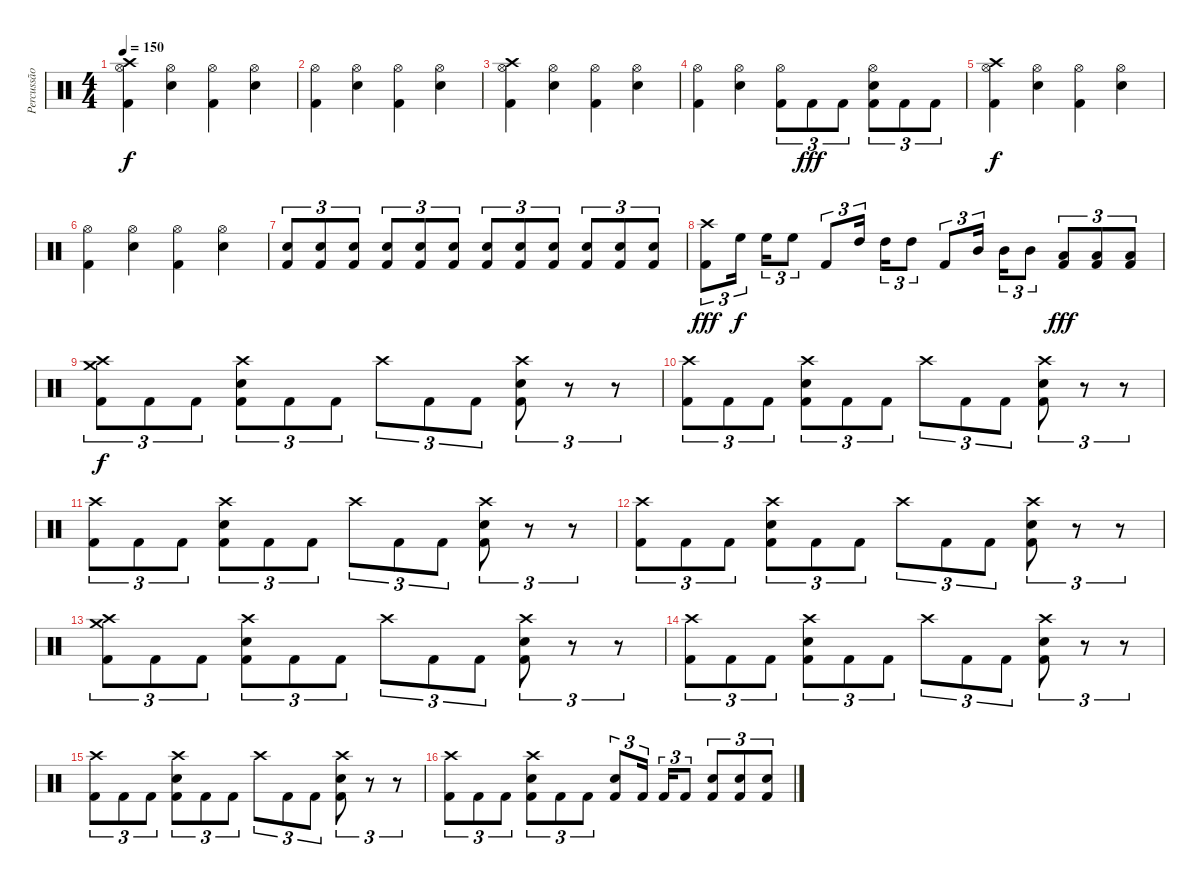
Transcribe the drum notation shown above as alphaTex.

\track ("Percussão" "Percussão") {instrument percussion}
\staff {score}
\articulation defaults
\ts (4 4)
\tempo 150
\clef neutral
\ks c
("Crash high (hit)" "Hi-Hat (open)" "Kick (hit) 2").4{dy f} ("Hi-Hat (open)" "Snare (hit) 2").4 ("Hi-Hat (open)" "Kick (hit) 2").4 ("Hi-Hat (open)" "Snare (hit) 2").4 |
("Hi-Hat (open)" "Kick (hit) 2").4 ("Hi-Hat (open)" "Snare (hit) 2").4 ("Hi-Hat (open)" "Kick (hit) 2").4 ("Hi-Hat (open)" "Snare (hit) 2").4 |
("Crash high (hit)" "Hi-Hat (open)" "Kick (hit) 2").4 ("Hi-Hat (open)" "Snare (hit) 2").4 ("Hi-Hat (open)" "Kick (hit) 2").4 ("Hi-Hat (open)" "Snare (hit) 2").4 |
("Hi-Hat (open)" "Kick (hit) 2").4 ("Hi-Hat (open)" "Snare (hit) 2").4 ("Hi-Hat (open)" "Kick (hit) 2").8{tu (3 2)} "Kick (hit) 2".8{tu (3 2) dy fff} "Kick (hit) 2".8{tu (3 2)} ("Hi-Hat (open)" "Snare (hit) 2" "Kick (hit) 2").8{tu (3 2)} "Kick (hit) 2".8{tu (3 2)} "Kick (hit) 2".8{tu (3 2)} |
("Crash high (hit)" "Hi-Hat (open)" "Kick (hit) 2").4{dy f} ("Hi-Hat (open)" "Snare (hit) 2").4 ("Hi-Hat (open)" "Kick (hit) 2").4 ("Hi-Hat (open)" "Snare (hit) 2").4 |
("Hi-Hat (open)" "Kick (hit) 2").4 ("Hi-Hat (open)" "Snare (hit) 2").4 ("Hi-Hat (open)" "Kick (hit) 2").4 ("Hi-Hat (open)" "Snare (hit) 2").4 |
("Kick (hit) 2" "Snare (hit) 2").8{tu (3 2)} ("Kick (hit) 2" "Snare (hit) 2").8{tu (3 2)} ("Kick (hit) 2" "Snare (hit) 2").8{tu (3 2)} ("Kick (hit) 2" "Snare (hit) 2").8{tu (3 2)} ("Kick (hit) 2" "Snare (hit) 2").8{tu (3 2)} ("Kick (hit) 2" "Snare (hit) 2").8{tu (3 2)} ("Kick (hit) 2" "Snare (hit) 2").8{tu (3 2)} ("Kick (hit) 2" "Snare (hit) 2").8{tu (3 2)} ("Kick (hit) 2" "Snare (hit) 2").8{tu (3 2)} ("Kick (hit) 2" "Snare (hit) 2").8{tu (3 2)} ("Kick (hit) 2" "Snare (hit) 2").8{tu (3 2)} ("Kick (hit) 2" "Snare (hit) 2").8{tu (3 2)} |
("Crash high (hit)" "Kick (hit) 2").8{tu (3 2) dy fff} "High Floor Tom (hit)".16{tu (3 2) dy f beam splitsecondary} "High Floor Tom (hit)".16{tu (3 2)} "High Floor Tom (hit)".8{tu (3 2)} "Kick (hit) 2".8{tu (3 2)} "High Tom (hit)".16{tu (3 2) beam splitsecondary} "High Tom (hit)".16{tu (3 2)} "High Tom (hit)".8{tu (3 2)} "Kick (hit) 2".8{tu (3 2)} "Mid Tom (hit)".16{tu (3 2) beam splitsecondary} "Mid Tom (hit)".16{tu (3 2)} "Mid Tom (hit)".8{tu (3 2)} ("Low Tom (hit)" "Kick (hit) 2").8{tu (3 2) dy fff} ("Low Tom (hit)" "Kick (hit) 2").8{tu (3 2)} ("Low Tom (hit)" "Kick (hit) 2").8{tu (3 2)} |
("Crash high (hit)" "Crash medium (hit)" "Kick (hit) 2").8{tu (3 2) dy f} "Kick (hit) 2".8{tu (3 2)} "Kick (hit) 2".8{tu (3 2)} ("Crash high (hit)" "Snare (hit) 2" "Kick (hit) 2").8{tu (3 2)} "Kick (hit) 2".8{tu (3 2)} "Kick (hit) 2".8{tu (3 2)} "Crash high (hit)".8{tu (3 2)} "Kick (hit) 2".8{tu (3 2)} "Kick (hit) 2".8{tu (3 2)} ("Crash high (hit)" "Snare (hit) 2" "Kick (hit) 2").8{tu (3 2)} r.8{tu (3 2)} r.8{tu (3 2)} |
("Crash high (hit)" "Kick (hit) 2").8{tu (3 2)} "Kick (hit) 2".8{tu (3 2)} "Kick (hit) 2".8{tu (3 2)} ("Crash high (hit)" "Snare (hit) 2" "Kick (hit) 2").8{tu (3 2)} "Kick (hit) 2".8{tu (3 2)} "Kick (hit) 2".8{tu (3 2)} "Crash high (hit)".8{tu (3 2)} "Kick (hit) 2".8{tu (3 2)} "Kick (hit) 2".8{tu (3 2)} ("Crash high (hit)" "Snare (hit) 2" "Kick (hit) 2").8{tu (3 2)} r.8{tu (3 2)} r.8{tu (3 2)} |
("Crash high (hit)" "Kick (hit) 2").8{tu (3 2)} "Kick (hit) 2".8{tu (3 2)} "Kick (hit) 2".8{tu (3 2)} ("Crash high (hit)" "Snare (hit) 2" "Kick (hit) 2").8{tu (3 2)} "Kick (hit) 2".8{tu (3 2)} "Kick (hit) 2".8{tu (3 2)} "Crash high (hit)".8{tu (3 2)} "Kick (hit) 2".8{tu (3 2)} "Kick (hit) 2".8{tu (3 2)} ("Crash high (hit)" "Snare (hit) 2" "Kick (hit) 2").8{tu (3 2)} r.8{tu (3 2)} r.8{tu (3 2)} |
("Crash high (hit)" "Kick (hit) 2").8{tu (3 2)} "Kick (hit) 2".8{tu (3 2)} "Kick (hit) 2".8{tu (3 2)} ("Crash high (hit)" "Snare (hit) 2" "Kick (hit) 2").8{tu (3 2)} "Kick (hit) 2".8{tu (3 2)} "Kick (hit) 2".8{tu (3 2)} "Crash high (hit)".8{tu (3 2)} "Kick (hit) 2".8{tu (3 2)} "Kick (hit) 2".8{tu (3 2)} ("Crash high (hit)" "Snare (hit) 2" "Kick (hit) 2").8{tu (3 2)} r.8{tu (3 2)} r.8{tu (3 2)} |
("Crash high (hit)" "Crash medium (hit)" "Kick (hit) 2").8{tu (3 2)} "Kick (hit) 2".8{tu (3 2)} "Kick (hit) 2".8{tu (3 2)} ("Crash high (hit)" "Snare (hit) 2" "Kick (hit) 2").8{tu (3 2)} "Kick (hit) 2".8{tu (3 2)} "Kick (hit) 2".8{tu (3 2)} "Crash high (hit)".8{tu (3 2)} "Kick (hit) 2".8{tu (3 2)} "Kick (hit) 2".8{tu (3 2)} ("Crash high (hit)" "Snare (hit) 2" "Kick (hit) 2").8{tu (3 2)} r.8{tu (3 2)} r.8{tu (3 2)} |
("Crash high (hit)" "Kick (hit) 2").8{tu (3 2)} "Kick (hit) 2".8{tu (3 2)} "Kick (hit) 2".8{tu (3 2)} ("Crash high (hit)" "Snare (hit) 2" "Kick (hit) 2").8{tu (3 2)} "Kick (hit) 2".8{tu (3 2)} "Kick (hit) 2".8{tu (3 2)} "Crash high (hit)".8{tu (3 2)} "Kick (hit) 2".8{tu (3 2)} "Kick (hit) 2".8{tu (3 2)} ("Crash high (hit)" "Snare (hit) 2" "Kick (hit) 2").8{tu (3 2)} r.8{tu (3 2)} r.8{tu (3 2)} |
("Crash high (hit)" "Kick (hit) 2").8{tu (3 2)} "Kick (hit) 2".8{tu (3 2)} "Kick (hit) 2".8{tu (3 2)} ("Crash high (hit)" "Snare (hit) 2" "Kick (hit) 2").8{tu (3 2)} "Kick (hit) 2".8{tu (3 2)} "Kick (hit) 2".8{tu (3 2)} "Crash high (hit)".8{tu (3 2)} "Kick (hit) 2".8{tu (3 2)} "Kick (hit) 2".8{tu (3 2)} ("Crash high (hit)" "Snare (hit) 2" "Kick (hit) 2").8{tu (3 2)} r.8{tu (3 2)} r.8{tu (3 2)} |
("Crash high (hit)" "Kick (hit) 2").8{tu (3 2)} "Kick (hit) 2".8{tu (3 2)} "Kick (hit) 2".8{tu (3 2)} ("Crash high (hit)" "Snare (hit) 2" "Kick (hit) 2").8{tu (3 2)} "Kick (hit) 2".8{tu (3 2)} "Kick (hit) 2".8{tu (3 2)} ("Snare (hit) 2" "Kick (hit) 2").8{tu (3 2)} "Kick (hit) 2".16{tu (3 2) beam splitsecondary} "Kick (hit) 2".16{tu (3 2)} "Kick (hit) 2".8{tu (3 2)} ("Snare (hit) 2" "Kick (hit) 2").8{tu (3 2)} ("Snare (hit) 2" "Kick (hit) 2").8{tu (3 2)} ("Snare (hit) 2" "Kick (hit) 2").8{tu (3 2)}
